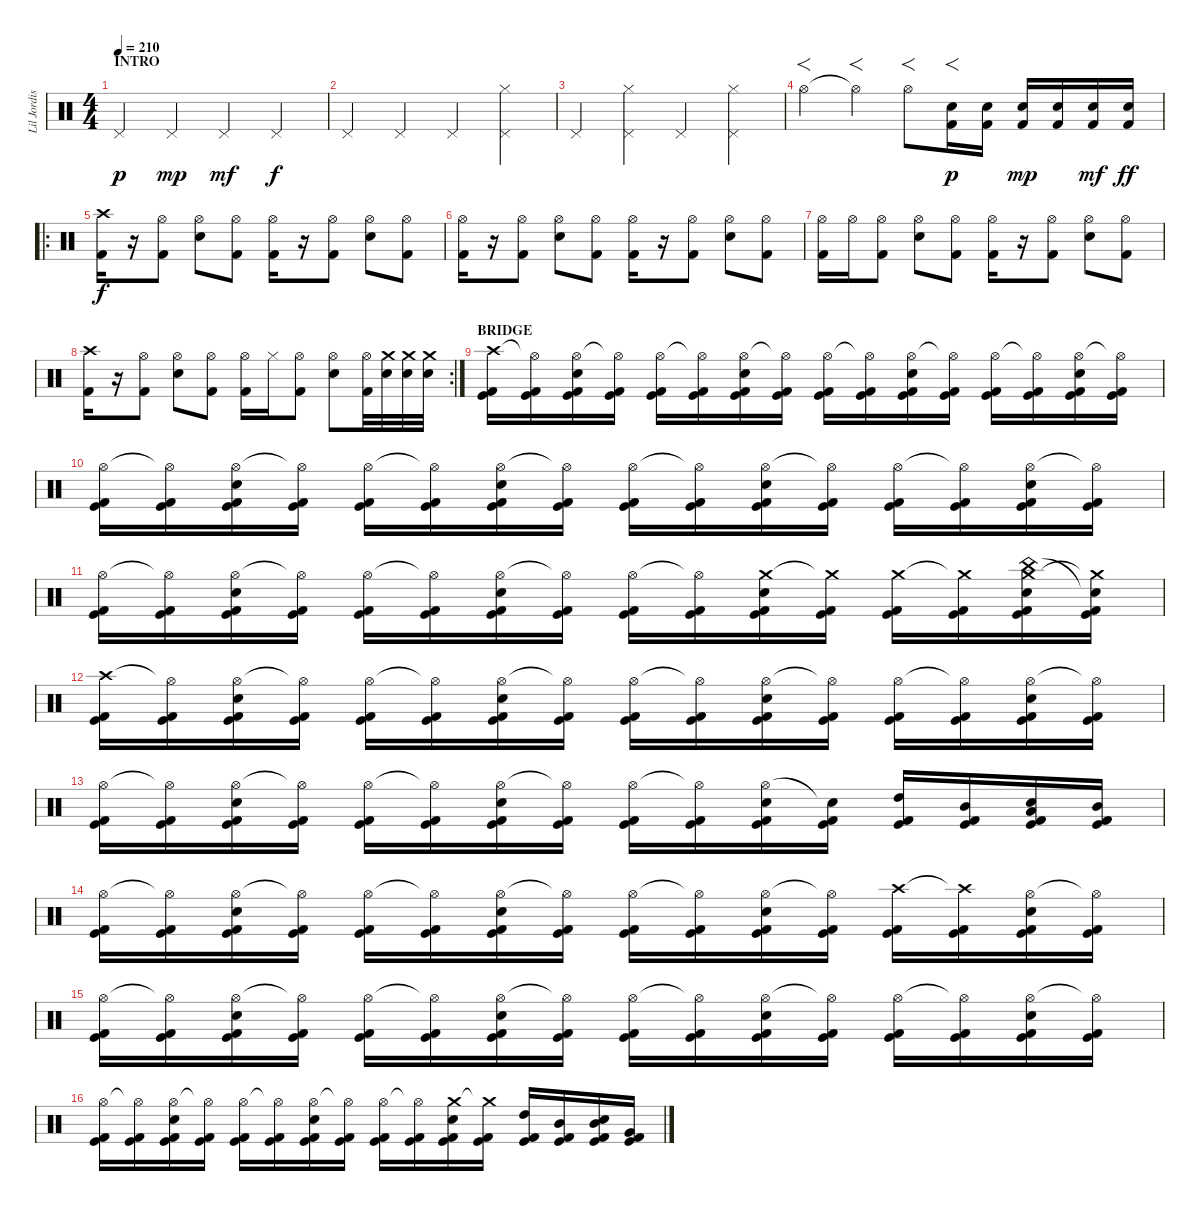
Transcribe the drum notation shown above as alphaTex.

\track ("Lil Jordison" "Lil Jordis") {instrument percussion}
\staff {score}
\articulation defaults
\ts (4 4)
\section ("" "INTRO")
\tempo 210
\clef neutral
\ks c "Pedal Hi-Hat (hit)".4{dy p} "Pedal Hi-Hat (hit)".4{dy mp} "Pedal Hi-Hat (hit)".4{dy mf} "Pedal Hi-Hat (hit)".4{dy f}
|
"Pedal Hi-Hat (hit)".4 "Pedal Hi-Hat (hit)".4 "Pedal Hi-Hat (hit)".4 ("Hi-Hat (closed)" "Pedal Hi-Hat (hit)").4 |
"Pedal Hi-Hat (hit)".4 ("Hi-Hat (closed)" "Pedal Hi-Hat (hit)").4 "Pedal Hi-Hat (hit)".4 ("Hi-Hat (closed)" "Pedal Hi-Hat (hit)").4 |
"Hi-Hat (open)".4{f} "Hi-Hat (open)"{t}.4{f} "Hi-Hat (open)".8{f} ("Electric Snare (hit)" "Kick (hit) 2").16{f dy p} ("Electric Snare (hit)" "Kick (hit) 2").16 ("Electric Snare (hit)" "Kick (hit) 2").16{dy mp} ("Electric Snare (hit)" "Kick (hit) 2").16 ("Electric Snare (hit)" "Kick (hit) 2").16{dy mf} ("Electric Snare (hit)" "Kick (hit) 2").16{dy ff} |
\ro
("Crash high (hit)" "Kick (hit) 2").16{dy f} r.16 ("Hi-Hat (open)" "Kick (hit) 2").8 ("Hi-Hat (open)" "Electric Snare (hit)").8 ("Hi-Hat (open)" "Kick (hit) 2").8 ("Hi-Hat (open)" "Kick (hit) 2").16 r.16 ("Hi-Hat (open)" "Kick (hit) 2").8 ("Hi-Hat (open)" "Electric Snare (hit)").8 ("Hi-Hat (open)" "Kick (hit) 2").8 |
("Hi-Hat (open)" "Kick (hit) 2").16 r.16 ("Hi-Hat (open)" "Kick (hit) 2").8 ("Hi-Hat (open)" "Electric Snare (hit)").8 ("Hi-Hat (open)" "Kick (hit) 2").8 ("Hi-Hat (open)" "Kick (hit) 2").16 r.16 ("Hi-Hat (open)" "Kick (hit) 2").8 ("Hi-Hat (open)" "Electric Snare (hit)").8 ("Hi-Hat (open)" "Kick (hit) 2").8 |
("Hi-Hat (open)" "Kick (hit) 2").16 "Hi-Hat (open)".16 ("Hi-Hat (open)" "Kick (hit) 2").8 ("Hi-Hat (open)" "Electric Snare (hit)").8 ("Hi-Hat (open)" "Kick (hit) 2").8 ("Hi-Hat (open)" "Kick (hit) 2").16 r.16 ("Hi-Hat (open)" "Kick (hit) 2").8 ("Hi-Hat (open)" "Electric Snare (hit)").8 ("Hi-Hat (open)" "Kick (hit) 2").8 |
\rc 2
("Crash high (hit)" "Kick (hit) 2").16 r.16 ("Hi-Hat (open)" "Kick (hit) 2").8 ("Hi-Hat (open)" "Electric Snare (hit)").8 ("Hi-Hat (open)" "Kick (hit) 2").8 ("Hi-Hat (open)" "Kick (hit) 2").16 "Hi-Hat (closed)".16 ("Hi-Hat (open)" "Kick (hit) 2").8 ("Hi-Hat (open)" "Electric Snare (hit)").8 ("Hi-Hat (open)" "Kick (hit) 2").32 ("Crash medium (hit)" "Electric Snare (hit)").32 ("Crash medium (hit)" "Electric Snare (hit)").32 ("Crash medium (hit)" "Electric Snare (hit)").32 |
\section ("" "BRIDGE")
("Crash high (hit)" "Kick (hit)" "Kick (hit) 2").16 ("Hi-Hat (open)"{t} "Kick (hit)" "Kick (hit) 2").16 ("Hi-Hat (open)" "Electric Snare (hit)" "Kick (hit)" "Kick (hit) 2").16 ("Hi-Hat (open)"{t} "Kick (hit)" "Kick (hit) 2").16 ("Hi-Hat (open)" "Kick (hit)" "Kick (hit) 2").16 ("Hi-Hat (open)"{t} "Kick (hit)" "Kick (hit) 2").16 ("Hi-Hat (open)" "Electric Snare (hit)" "Kick (hit)" "Kick (hit) 2").16 ("Hi-Hat (open)"{t} "Kick (hit)" "Kick (hit) 2").16 ("Hi-Hat (open)" "Kick (hit)" "Kick (hit) 2").16 ("Hi-Hat (open)"{t} "Kick (hit)" "Kick (hit) 2").16 ("Hi-Hat (open)" "Electric Snare (hit)" "Kick (hit)" "Kick (hit) 2").16 ("Hi-Hat (open)"{t} "Kick (hit)" "Kick (hit) 2").16 ("Hi-Hat (open)" "Kick (hit)" "Kick (hit) 2").16 ("Hi-Hat (open)"{t} "Kick (hit)" "Kick (hit) 2").16 ("Hi-Hat (open)" "Electric Snare (hit)" "Kick (hit)" "Kick (hit) 2").16 ("Hi-Hat (open)"{t} "Kick (hit)" "Kick (hit) 2").16 |
("Hi-Hat (open)" "Kick (hit)" "Kick (hit) 2").16 ("Hi-Hat (open)"{t} "Kick (hit)" "Kick (hit) 2").16 ("Hi-Hat (open)" "Electric Snare (hit)" "Kick (hit)" "Kick (hit) 2").16 ("Hi-Hat (open)"{t} "Kick (hit)" "Kick (hit) 2").16 ("Hi-Hat (open)" "Kick (hit)" "Kick (hit) 2").16 ("Hi-Hat (open)"{t} "Kick (hit)" "Kick (hit) 2").16 ("Hi-Hat (open)" "Electric Snare (hit)" "Kick (hit)" "Kick (hit) 2").16 ("Hi-Hat (open)"{t} "Kick (hit)" "Kick (hit) 2").16 ("Hi-Hat (open)" "Kick (hit)" "Kick (hit) 2").16 ("Hi-Hat (open)"{t} "Kick (hit)" "Kick (hit) 2").16 ("Hi-Hat (open)" "Electric Snare (hit)" "Kick (hit)" "Kick (hit) 2").16 ("Hi-Hat (open)"{t} "Kick (hit)" "Kick (hit) 2").16 ("Hi-Hat (open)" "Kick (hit)" "Kick (hit) 2").16 ("Hi-Hat (open)"{t} "Kick (hit)" "Kick (hit) 2").16 ("Hi-Hat (open)" "Electric Snare (hit)" "Kick (hit)" "Kick (hit) 2").16 ("Hi-Hat (open)"{t} "Kick (hit)" "Kick (hit) 2").16 |
("Hi-Hat (open)" "Kick (hit)" "Kick (hit) 2").16 ("Hi-Hat (open)"{t} "Kick (hit)" "Kick (hit) 2").16 ("Hi-Hat (open)" "Electric Snare (hit)" "Kick (hit)" "Kick (hit) 2").16 ("Hi-Hat (open)"{t} "Kick (hit)" "Kick (hit) 2").16 ("Hi-Hat (open)" "Kick (hit)" "Kick (hit) 2").16 ("Hi-Hat (open)"{t} "Kick (hit)" "Kick (hit) 2").16 ("Hi-Hat (open)" "Electric Snare (hit)" "Kick (hit)" "Kick (hit) 2").16 ("Hi-Hat (open)"{t} "Kick (hit)" "Kick (hit) 2").16 ("Hi-Hat (open)" "Kick (hit)" "Kick (hit) 2").16 ("Hi-Hat (open)"{t} "Kick (hit)" "Kick (hit) 2").16 ("Crash medium (hit)" "Electric Snare (hit)" "Kick (hit)" "Kick (hit) 2").16 ("Crash medium (hit)"{t} "Kick (hit)" "Kick (hit) 2").16 ("Crash medium (hit)" "Kick (hit)" "Kick (hit) 2").16 ("Crash medium (hit)"{t} "Kick (hit)" "Kick (hit) 2").16 ("Crash medium (hit)" "China (hit)" "Electric Snare (hit)" "Kick (hit)" "Kick (hit) 2").16 ("Crash medium (hit)"{t} "Snare (hit)"{t} "Kick (hit)" "Kick (hit) 2").16 |
("Crash high (hit)" "Kick (hit)" "Kick (hit) 2").16 ("Hi-Hat (open)"{t} "Kick (hit)" "Kick (hit) 2").16 ("Hi-Hat (open)" "Electric Snare (hit)" "Kick (hit)" "Kick (hit) 2").16 ("Hi-Hat (open)"{t} "Kick (hit)" "Kick (hit) 2").16 ("Hi-Hat (open)" "Kick (hit)" "Kick (hit) 2").16 ("Hi-Hat (open)"{t} "Kick (hit)" "Kick (hit) 2").16 ("Hi-Hat (open)" "Electric Snare (hit)" "Kick (hit)" "Kick (hit) 2").16 ("Hi-Hat (open)"{t} "Kick (hit)" "Kick (hit) 2").16 ("Hi-Hat (open)" "Kick (hit)" "Kick (hit) 2").16 ("Hi-Hat (open)"{t} "Kick (hit)" "Kick (hit) 2").16 ("Hi-Hat (open)" "Electric Snare (hit)" "Kick (hit)" "Kick (hit) 2").16 ("Hi-Hat (open)"{t} "Kick (hit)" "Kick (hit) 2").16 ("Hi-Hat (open)" "Kick (hit)" "Kick (hit) 2").16 ("Hi-Hat (open)"{t} "Kick (hit)" "Kick (hit) 2").16 ("Hi-Hat (open)" "Electric Snare (hit)" "Kick (hit)" "Kick (hit) 2").16 ("Hi-Hat (open)"{t} "Kick (hit)" "Kick (hit) 2").16 |
("Hi-Hat (open)" "Kick (hit)" "Kick (hit) 2").16 ("Hi-Hat (open)"{t} "Kick (hit)" "Kick (hit) 2").16 ("Hi-Hat (open)" "Electric Snare (hit)" "Kick (hit)" "Kick (hit) 2").16 ("Hi-Hat (open)"{t} "Kick (hit)" "Kick (hit) 2").16 ("Hi-Hat (open)" "Kick (hit)" "Kick (hit) 2").16 ("Hi-Hat (open)"{t} "Kick (hit)" "Kick (hit) 2").16 ("Hi-Hat (open)" "Electric Snare (hit)" "Kick (hit)" "Kick (hit) 2").16 ("Hi-Hat (open)"{t} "Kick (hit)" "Kick (hit) 2").16 ("Hi-Hat (open)" "Kick (hit)" "Kick (hit) 2").16 ("Hi-Hat (open)"{t} "Kick (hit)" "Kick (hit) 2").16 ("Hi-Hat (open)" "Electric Snare (hit)" "Kick (hit)" "Kick (hit) 2").16 ("Snare (hit)"{t} "Kick (hit)" "Kick (hit) 2").16 ("High Tom (hit)" "Kick (hit)" "Kick (hit) 2").16 ("Mid Tom (hit)" "Kick (hit)" "Kick (hit) 2").16 ("Low Tom (hit)" "Electric Snare (hit)" "Kick (hit)" "Kick (hit) 2").16 ("Mid Tom (hit)" "Kick (hit)" "Kick (hit) 2").16 |
("Hi-Hat (open)" "Kick (hit)" "Kick (hit) 2").16 ("Hi-Hat (open)"{t} "Kick (hit)" "Kick (hit) 2").16 ("Hi-Hat (open)" "Electric Snare (hit)" "Kick (hit)" "Kick (hit) 2").16 ("Hi-Hat (open)"{t} "Kick (hit)" "Kick (hit) 2").16 ("Hi-Hat (open)" "Kick (hit)" "Kick (hit) 2").16 ("Hi-Hat (open)"{t} "Kick (hit)" "Kick (hit) 2").16 ("Hi-Hat (open)" "Electric Snare (hit)" "Kick (hit)" "Kick (hit) 2").16 ("Hi-Hat (open)"{t} "Kick (hit)" "Kick (hit) 2").16 ("Hi-Hat (open)" "Kick (hit)" "Kick (hit) 2").16 ("Hi-Hat (open)"{t} "Kick (hit)" "Kick (hit) 2").16 ("Hi-Hat (open)" "Electric Snare (hit)" "Kick (hit)" "Kick (hit) 2").16 ("Hi-Hat (open)"{t} "Kick (hit)" "Kick (hit) 2").16 ("Crash high (hit)" "Kick (hit)" "Kick (hit) 2").16 ("Crash high (hit)"{t} "Kick (hit)" "Kick (hit) 2").16 ("Hi-Hat (open)" "Electric Snare (hit)" "Kick (hit)" "Kick (hit) 2").16 ("Hi-Hat (open)"{t} "Kick (hit)" "Kick (hit) 2").16 |
("Hi-Hat (open)" "Kick (hit)" "Kick (hit) 2").16 ("Hi-Hat (open)"{t} "Kick (hit)" "Kick (hit) 2").16 ("Hi-Hat (open)" "Electric Snare (hit)" "Kick (hit)" "Kick (hit) 2").16 ("Hi-Hat (open)"{t} "Kick (hit)" "Kick (hit) 2").16 ("Hi-Hat (open)" "Kick (hit)" "Kick (hit) 2").16 ("Hi-Hat (open)"{t} "Kick (hit)" "Kick (hit) 2").16 ("Hi-Hat (open)" "Electric Snare (hit)" "Kick (hit)" "Kick (hit) 2").16 ("Hi-Hat (open)"{t} "Kick (hit)" "Kick (hit) 2").16 ("Hi-Hat (open)" "Kick (hit)" "Kick (hit) 2").16 ("Hi-Hat (open)"{t} "Kick (hit)" "Kick (hit) 2").16 ("Hi-Hat (open)" "Electric Snare (hit)" "Kick (hit)" "Kick (hit) 2").16 ("Hi-Hat (open)"{t} "Kick (hit)" "Kick (hit) 2").16 ("Hi-Hat (open)" "Kick (hit)" "Kick (hit) 2").16 ("Hi-Hat (open)"{t} "Kick (hit)" "Kick (hit) 2").16 ("Hi-Hat (open)" "Electric Snare (hit)" "Kick (hit)" "Kick (hit) 2").16 ("Hi-Hat (open)"{t} "Kick (hit)" "Kick (hit) 2").16 |
("Hi-Hat (open)" "Kick (hit)" "Kick (hit) 2").16 ("Hi-Hat (open)"{t} "Kick (hit)" "Kick (hit) 2").16 ("Hi-Hat (open)" "Electric Snare (hit)" "Kick (hit)" "Kick (hit) 2").16 ("Hi-Hat (open)"{t} "Kick (hit)" "Kick (hit) 2").16 ("Hi-Hat (open)" "Kick (hit)" "Kick (hit) 2").16 ("Hi-Hat (open)"{t} "Kick (hit)" "Kick (hit) 2").16 ("Hi-Hat (open)" "Electric Snare (hit)" "Kick (hit)" "Kick (hit) 2").16 ("Hi-Hat (open)"{t} "Kick (hit)" "Kick (hit) 2").16 ("Hi-Hat (open)" "Kick (hit)" "Kick (hit) 2").16 ("Hi-Hat (open)"{t} "Kick (hit)" "Kick (hit) 2").16 ("Crash medium (hit)" "Electric Snare (hit)" "Kick (hit)" "Kick (hit) 2").16 ("Crash medium (hit)"{t} "Kick (hit)" "Kick (hit) 2").16 ("High Tom (hit)" "Kick (hit)" "Kick (hit) 2").16 ("Mid Tom (hit)" "Kick (hit)" "Kick (hit) 2").16 ("Mid Tom (hit)" "Electric Snare (hit)" "Kick (hit)" "Kick (hit) 2").16 ("Very Low Tom (hit)" "Kick (hit)" "Kick (hit) 2").16
